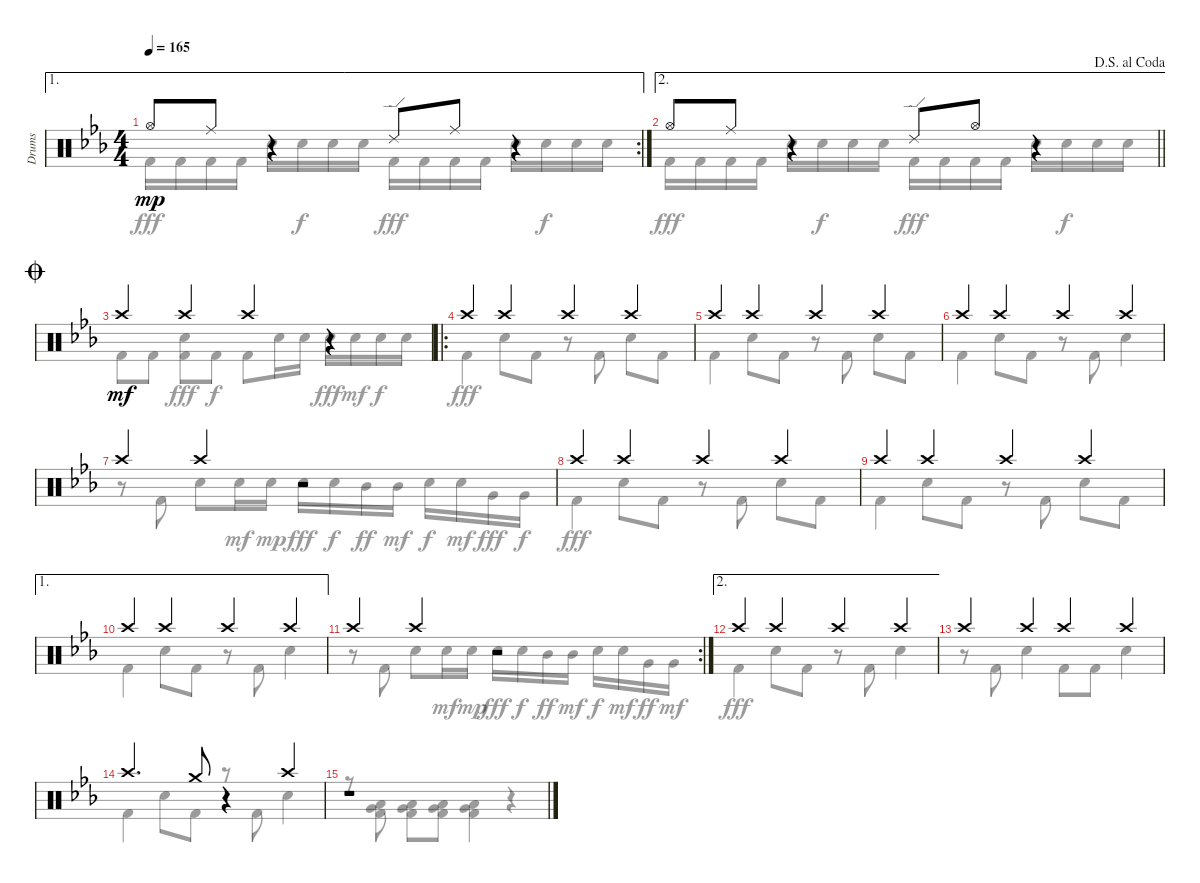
\track ("Drums" "Drums") {instrument percussion}
\staff {score}
\articulation defaults
\voice
\ae 1
\rc 2
\ts (4 4)
\tempo 165
\clef neutral
\ks cminor "Hi-Hat (open)".8{dy mp} "Ride (middle)".8
r.4 "Ride (edge) 2".8 "Ride (middle)".8 r.4 |
\ae 2
\jump dalsegnoalcoda
\barLineRight lightlight "Hi-Hat (open)".8 "Ride (middle)".8
r.4 "Ride (edge) 2".8 "Hi-Hat (open)".8 r.4 |
\jump coda "Crash high (hit)".4{dy mf} "Crash high (hit)".4 "Crash high (hit)".4
r.4 |
\ro "Crash high (hit)".4 "Crash high (hit)".4 "Crash high (hit)".4 "Crash high (hit)".4
|
"Crash high (hit)".4 "Crash high (hit)".4 "Crash high (hit)".4 "Crash high (hit)".4 |
"Crash high (hit)".4 "Crash high (hit)".4 "Crash high (hit)".4 "Crash high (hit)".4 |
"Crash high (hit)".4 "Crash high (hit)".4 r.2 |
"Crash high (hit)".4 "Crash high (hit)".4 "Crash high (hit)".4 "Crash high (hit)".4 |
"Crash high (hit)".4 "Crash high (hit)".4 "Crash high (hit)".4 "Crash high (hit)".4 |
\ae 1 "Crash high (hit)".4 "Crash high (hit)".4 "Crash high (hit)".4 "Crash high (hit)".4
|
\rc 2 "Crash high (hit)".4 "Crash high (hit)".4
r.2 |
\ae 2 "Crash high (hit)".4 "Crash high (hit)".4 "Crash high (hit)".4 "Crash high (hit)".4
|
"Crash high (hit)".4 "Crash high (hit)".4 "Crash high (hit)".4 "Crash high (hit)".4 |
"Crash high (hit)".4{d} "Crash medium (hit)".8 r.4 "Crash high (hit)".4 |
r.1
\voice
\clef neutral
\ottava regular
\simile none
\ks cminor "Kick (hit) 2".16{dy fff} "Kick (hit) 2".16 "Kick (hit) 2".16 "Kick (hit) 2".16 "Electric Snare (hit)".16 "Electric Snare (hit)".16{dy f} "Electric Snare (hit)".16 "Electric Snare (hit)".16 "Kick (hit) 2".16{dy fff} "Kick (hit) 2".16 "Kick (hit) 2".16 "Kick (hit) 2".16 "Electric Snare (hit)".16 "Electric Snare (hit)".16{dy f} "Electric Snare (hit)".16 "Electric Snare (hit)".16
|
\barLineRight lightlight "Kick (hit) 2".16{dy fff} "Kick (hit) 2".16 "Kick (hit) 2".16 "Kick (hit) 2".16 "Electric Snare (hit)".16 "Electric Snare (hit)".16{dy f} "Electric Snare (hit)".16 "Electric Snare (hit)".16 "Kick (hit) 2".16{dy fff} "Kick (hit) 2".16 "Kick (hit) 2".16 "Kick (hit) 2".16 "Electric Snare (hit)".16 "Electric Snare (hit)".16{dy f} "Electric Snare (hit)".16 "Electric Snare (hit)".16
|
"Kick (hit) 2".8 "Kick (hit) 2".8 ("Electric Snare (hit)" "Kick (hit) 2").8{dy fff} "Kick (hit) 2".8{dy f} "Kick (hit) 2".8 "Electric Snare (hit)".16 "Electric Snare (hit)".16 "Electric Snare (hit)".16{dy fff} "Electric Snare (hit)".16{dy mf} "Electric Snare (hit)".16{dy f} "Electric Snare (hit)".16 |
"Kick (hit) 2".4{dy fff} "Electric Snare (hit)".8 "Kick (hit) 2".8 r.8 "Kick (hit) 2".8 "Electric Snare (hit)".8 "Kick (hit) 2".8 |
"Kick (hit) 2".4 "Electric Snare (hit)".8 "Kick (hit) 2".8 r.8 "Kick (hit) 2".8 "Electric Snare (hit)".8 "Kick (hit) 2".8 |
"Kick (hit) 2".4 "Electric Snare (hit)".8 "Kick (hit) 2".8 r.8 "Kick (hit) 2".8 "Electric Snare (hit)".4 |
r.8 "Kick (hit) 2".8 "Electric Snare (hit)".8 "Electric Snare (hit)".16{dy mf} "Electric Snare (hit)".16{dy mp} "Electric Snare (hit)".16{dy fff} "Electric Snare (hit)".16{dy f} "Mid Tom (hit)".16{dy ff} "Mid Tom (hit)".16{dy mf} "Electric Snare (hit)".16{dy f} "Electric Snare (hit)".16{dy mf} "Very Low Tom (hit)".16{dy fff} "Very Low Tom (hit)".16{dy f} |
"Kick (hit) 2".4{dy fff} "Electric Snare (hit)".8 "Kick (hit) 2".8 r.8 "Kick (hit) 2".8 "Electric Snare (hit)".8 "Kick (hit) 2".8 |
"Kick (hit) 2".4 "Electric Snare (hit)".8 "Kick (hit) 2".8 r.8 "Kick (hit) 2".8 "Electric Snare (hit)".8 "Kick (hit) 2".8 |
"Kick (hit) 2".4 "Electric Snare (hit)".8 "Kick (hit) 2".8 r.8 "Kick (hit) 2".8 "Electric Snare (hit)".4 |
r.8 "Kick (hit) 2".8 "Electric Snare (hit)".8 "Electric Snare (hit)".16{dy mf} "Electric Snare (hit)".16{dy mp} "Electric Snare (hit)".16{dy fff} "Electric Snare (hit)".16{dy f} "Mid Tom (hit)".16{dy ff} "Mid Tom (hit)".16{dy mf} "Electric Snare (hit)".16{dy f} "Electric Snare (hit)".16{dy mf} "Very Low Tom (hit)".16{dy ff} "Very Low Tom (hit)".16{dy mf} |
"Kick (hit) 2".4{dy fff} "Electric Snare (hit)".8 "Kick (hit) 2".8 r.8 "Kick (hit) 2".8 "Electric Snare (hit)".4 |
r.8 "Kick (hit) 2".8 "Electric Snare (hit)".4 "Kick (hit) 2".8 "Kick (hit) 2".8 "Electric Snare (hit)".4 |
"Kick (hit) 2".4 "Electric Snare (hit)".8 "Kick (hit) 2".8 r.8 "Kick (hit) 2".8 "Electric Snare (hit)".4 |
r.8 ("Low Tom (hit)" "Very Low Tom (hit)" "Kick (hit) 2").8 ("Low Tom (hit)" "Very Low Tom (hit)" "Kick (hit) 2").8 ("Low Tom (hit)" "Very Low Tom (hit)" "Kick (hit) 2").8 ("Low Tom (hit)" "Very Low Tom (hit)" "Kick (hit) 2").4 r.4
